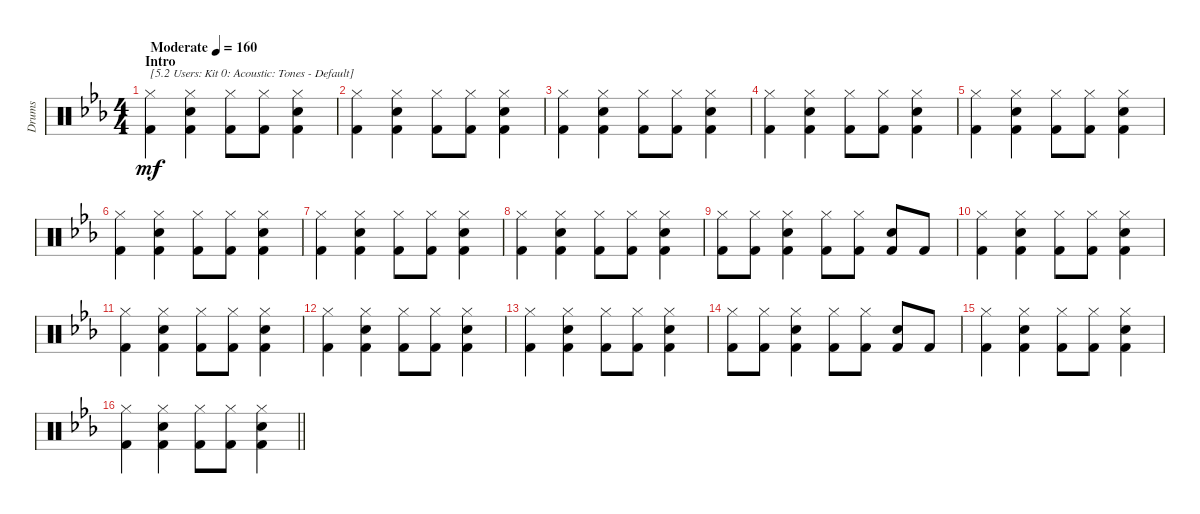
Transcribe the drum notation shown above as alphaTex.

\track ("Drums" "Drums") {instrument percussion}
\staff {score}
\articulation defaults
\ts (4 4)
\section ("" "Intro")
\tempo (160 "Moderate")
\clef neutral
\ks eb
("Hi-Hat (closed)" "Kick (hit) 2").4{txt "[5.2 Users: Kit 0: Acoustic: Tones - Default]" dy mf} ("Hi-Hat (closed)" "Electric Snare (hit)" "Kick (hit) 2").4 ("Hi-Hat (closed)" "Kick (hit) 2").8 ("Hi-Hat (closed)" "Kick (hit) 2").8 ("Hi-Hat (closed)" "Electric Snare (hit)" "Kick (hit) 2").4 |
("Hi-Hat (closed)" "Kick (hit) 2").4 ("Hi-Hat (closed)" "Electric Snare (hit)" "Kick (hit) 2").4 ("Hi-Hat (closed)" "Kick (hit) 2").8 ("Hi-Hat (closed)" "Kick (hit) 2").8 ("Hi-Hat (closed)" "Electric Snare (hit)" "Kick (hit) 2").4 |
("Hi-Hat (closed)" "Kick (hit) 2").4 ("Hi-Hat (closed)" "Electric Snare (hit)" "Kick (hit) 2").4 ("Hi-Hat (closed)" "Kick (hit) 2").8 ("Hi-Hat (closed)" "Kick (hit) 2").8 ("Hi-Hat (closed)" "Electric Snare (hit)" "Kick (hit) 2").4 |
("Hi-Hat (closed)" "Kick (hit) 2").4 ("Hi-Hat (closed)" "Electric Snare (hit)" "Kick (hit) 2").4 ("Hi-Hat (closed)" "Kick (hit) 2").8 ("Hi-Hat (closed)" "Kick (hit) 2").8 ("Hi-Hat (closed)" "Electric Snare (hit)" "Kick (hit) 2").4 |
("Hi-Hat (closed)" "Kick (hit) 2").4 ("Hi-Hat (closed)" "Electric Snare (hit)" "Kick (hit) 2").4 ("Hi-Hat (closed)" "Kick (hit) 2").8 ("Hi-Hat (closed)" "Kick (hit) 2").8 ("Hi-Hat (closed)" "Electric Snare (hit)" "Kick (hit) 2").4 |
("Hi-Hat (closed)" "Kick (hit) 2").4 ("Hi-Hat (closed)" "Electric Snare (hit)" "Kick (hit) 2").4 ("Hi-Hat (closed)" "Kick (hit) 2").8 ("Hi-Hat (closed)" "Kick (hit) 2").8 ("Hi-Hat (closed)" "Electric Snare (hit)" "Kick (hit) 2").4 |
("Hi-Hat (closed)" "Kick (hit) 2").4 ("Hi-Hat (closed)" "Electric Snare (hit)" "Kick (hit) 2").4 ("Hi-Hat (closed)" "Kick (hit) 2").8 ("Hi-Hat (closed)" "Kick (hit) 2").8 ("Hi-Hat (closed)" "Electric Snare (hit)" "Kick (hit) 2").4 |
("Hi-Hat (closed)" "Kick (hit) 2").4 ("Hi-Hat (closed)" "Electric Snare (hit)" "Kick (hit) 2").4 ("Hi-Hat (closed)" "Kick (hit) 2").8 ("Hi-Hat (closed)" "Kick (hit) 2").8 ("Hi-Hat (closed)" "Electric Snare (hit)" "Kick (hit) 2").4 |
("Hi-Hat (closed)" "Kick (hit) 2").8 ("Hi-Hat (closed)" "Kick (hit) 2").8 ("Hi-Hat (closed)" "Electric Snare (hit)" "Kick (hit) 2").4 ("Hi-Hat (closed)" "Kick (hit) 2").8 ("Hi-Hat (closed)" "Kick (hit) 2").8 ("Electric Snare (hit)" "Kick (hit) 2").8 "Kick (hit) 2".8 |
("Hi-Hat (closed)" "Kick (hit) 2").4 ("Hi-Hat (closed)" "Electric Snare (hit)" "Kick (hit) 2").4 ("Hi-Hat (closed)" "Kick (hit) 2").8 ("Hi-Hat (closed)" "Kick (hit) 2").8 ("Hi-Hat (closed)" "Electric Snare (hit)" "Kick (hit) 2").4 |
("Hi-Hat (closed)" "Kick (hit) 2").4 ("Hi-Hat (closed)" "Electric Snare (hit)" "Kick (hit) 2").4 ("Hi-Hat (closed)" "Kick (hit) 2").8 ("Hi-Hat (closed)" "Kick (hit) 2").8 ("Hi-Hat (closed)" "Electric Snare (hit)" "Kick (hit) 2").4 |
("Hi-Hat (closed)" "Kick (hit) 2").4 ("Hi-Hat (closed)" "Electric Snare (hit)" "Kick (hit) 2").4 ("Hi-Hat (closed)" "Kick (hit) 2").8 ("Hi-Hat (closed)" "Kick (hit) 2").8 ("Hi-Hat (closed)" "Electric Snare (hit)" "Kick (hit) 2").4 |
("Hi-Hat (closed)" "Kick (hit) 2").4 ("Hi-Hat (closed)" "Electric Snare (hit)" "Kick (hit) 2").4 ("Hi-Hat (closed)" "Kick (hit) 2").8 ("Hi-Hat (closed)" "Kick (hit) 2").8 ("Hi-Hat (closed)" "Electric Snare (hit)" "Kick (hit) 2").4 |
("Hi-Hat (closed)" "Kick (hit) 2").8 ("Hi-Hat (closed)" "Kick (hit) 2").8 ("Hi-Hat (closed)" "Electric Snare (hit)" "Kick (hit) 2").4 ("Hi-Hat (closed)" "Kick (hit) 2").8 ("Hi-Hat (closed)" "Kick (hit) 2").8 ("Electric Snare (hit)" "Kick (hit) 2").8 "Kick (hit) 2".8 |
("Hi-Hat (closed)" "Kick (hit) 2").4 ("Hi-Hat (closed)" "Electric Snare (hit)" "Kick (hit) 2").4 ("Hi-Hat (closed)" "Kick (hit) 2").8 ("Hi-Hat (closed)" "Kick (hit) 2").8 ("Hi-Hat (closed)" "Electric Snare (hit)" "Kick (hit) 2").4 |
\barLineRight lightlight
("Hi-Hat (closed)" "Kick (hit) 2").4 ("Hi-Hat (closed)" "Electric Snare (hit)" "Kick (hit) 2").4 ("Hi-Hat (closed)" "Kick (hit) 2").8 ("Hi-Hat (closed)" "Kick (hit) 2").8 ("Hi-Hat (closed)" "Electric Snare (hit)" "Kick (hit) 2").4
